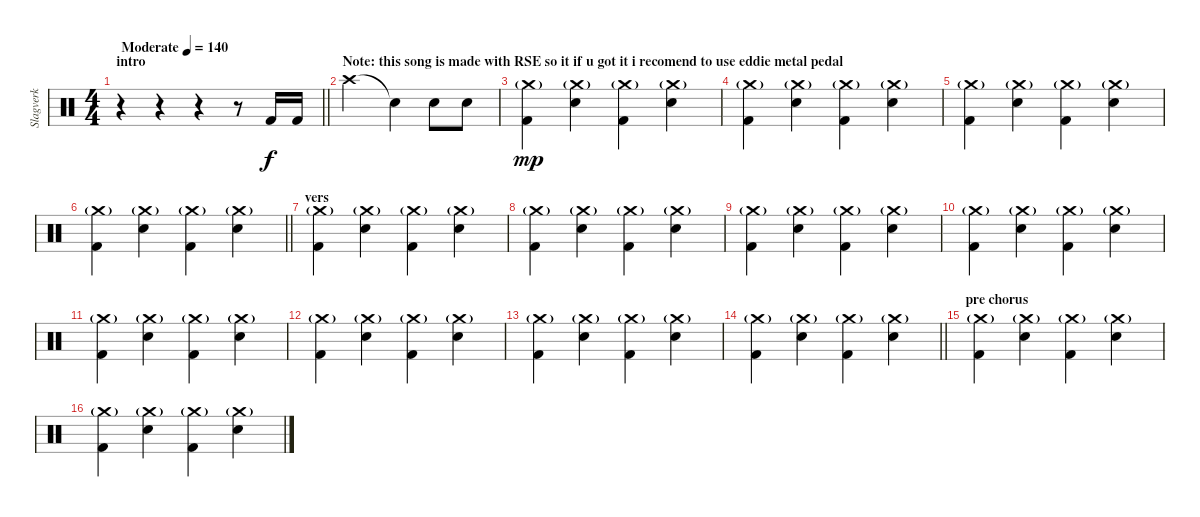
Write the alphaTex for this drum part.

\track ("Slagverk" "Slagverk") {instrument percussion}
\staff {score}
\articulation defaults
\ts (4 4)
\section ("" "intro")
\tempo (140 "Moderate")
\clef neutral
\barLineRight lightlight
\ks c
r.4{dy f} r.4 r.4 r.8 "Kick (hit) 2".16 "Kick (hit) 2".16 |
\section ("" "Note: this song is made with RSE so it if u got it i recomend to use eddie metal pedal")
"Crash high (hit)".2 "Snare (hit)"{t}.4 "Snare (hit) 2".8 "Snare (hit) 2".8 |
("Kick (hit) 2" "Crash medium (hit)"{g}).4{dy mp} ("Snare (hit) 2" "Crash medium (hit)"{g}).4 ("Kick (hit) 2" "Crash medium (hit)"{g}).4 ("Snare (hit) 2" "Crash medium (hit)"{g}).4 |
("Kick (hit) 2" "Crash medium (hit)"{g}).4 ("Snare (hit) 2" "Crash medium (hit)"{g}).4 ("Kick (hit) 2" "Crash medium (hit)"{g}).4 ("Snare (hit) 2" "Crash medium (hit)"{g}).4 |
("Kick (hit) 2" "Crash medium (hit)"{g}).4 ("Snare (hit) 2" "Crash medium (hit)"{g}).4 ("Kick (hit) 2" "Crash medium (hit)"{g}).4 ("Snare (hit) 2" "Crash medium (hit)"{g}).4 |
\barLineRight lightlight
("Kick (hit) 2" "Crash medium (hit)"{g}).4 ("Snare (hit) 2" "Crash medium (hit)"{g}).4 ("Kick (hit) 2" "Crash medium (hit)"{g}).4 ("Snare (hit) 2" "Crash medium (hit)"{g}).4 |
\section ("" "vers")
("Kick (hit) 2" "Crash medium (hit)"{g}).4 ("Snare (hit) 2" "Crash medium (hit)"{g}).4 ("Kick (hit) 2" "Crash medium (hit)"{g}).4 ("Snare (hit) 2" "Crash medium (hit)"{g}).4 |
("Kick (hit) 2" "Crash medium (hit)"{g}).4 ("Snare (hit) 2" "Crash medium (hit)"{g}).4 ("Kick (hit) 2" "Crash medium (hit)"{g}).4 ("Snare (hit) 2" "Crash medium (hit)"{g}).4 |
("Kick (hit) 2" "Crash medium (hit)"{g}).4 ("Snare (hit) 2" "Crash medium (hit)"{g}).4 ("Kick (hit) 2" "Crash medium (hit)"{g}).4 ("Snare (hit) 2" "Crash medium (hit)"{g}).4 |
("Kick (hit) 2" "Crash medium (hit)"{g}).4 ("Snare (hit) 2" "Crash medium (hit)"{g}).4 ("Kick (hit) 2" "Crash medium (hit)"{g}).4 ("Snare (hit) 2" "Crash medium (hit)"{g}).4 |
("Kick (hit) 2" "Crash medium (hit)"{g}).4 ("Snare (hit) 2" "Crash medium (hit)"{g}).4 ("Kick (hit) 2" "Crash medium (hit)"{g}).4 ("Snare (hit) 2" "Crash medium (hit)"{g}).4 |
("Kick (hit) 2" "Crash medium (hit)"{g}).4 ("Snare (hit) 2" "Crash medium (hit)"{g}).4 ("Kick (hit) 2" "Crash medium (hit)"{g}).4 ("Snare (hit) 2" "Crash medium (hit)"{g}).4 |
("Kick (hit) 2" "Crash medium (hit)"{g}).4 ("Snare (hit) 2" "Crash medium (hit)"{g}).4 ("Kick (hit) 2" "Crash medium (hit)"{g}).4 ("Snare (hit) 2" "Crash medium (hit)"{g}).4 |
\barLineRight lightlight
("Kick (hit) 2" "Crash medium (hit)"{g}).4 ("Snare (hit) 2" "Crash medium (hit)"{g}).4 ("Kick (hit) 2" "Crash medium (hit)"{g}).4 ("Snare (hit) 2" "Crash medium (hit)"{g}).4 |
\section ("" "pre chorus")
("Kick (hit) 2" "Crash medium (hit)"{g}).4 ("Snare (hit) 2" "Crash medium (hit)"{g}).4 ("Kick (hit) 2" "Crash medium (hit)"{g}).4 ("Snare (hit) 2" "Crash medium (hit)"{g}).4 |
("Kick (hit) 2" "Crash medium (hit)"{g}).4 ("Snare (hit) 2" "Crash medium (hit)"{g}).4 ("Kick (hit) 2" "Crash medium (hit)"{g}).4 ("Snare (hit) 2" "Crash medium (hit)"{g}).4
